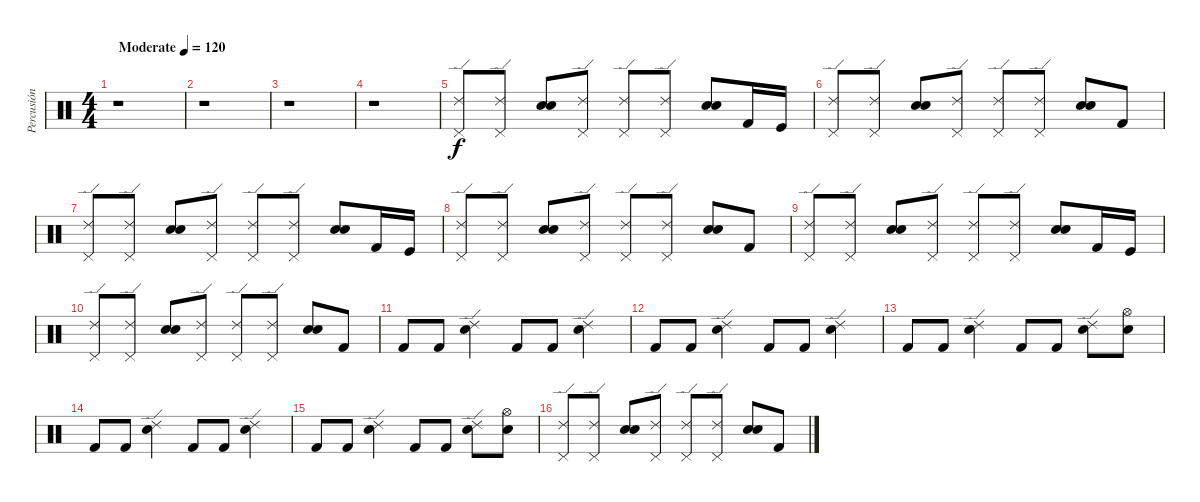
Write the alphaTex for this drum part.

\track ("Percusión" "Percusión") {instrument percussion}
\staff {score}
\articulation defaults
\ts (4 4)
\tempo (120 "Moderate")
\clef neutral
\ks c
r.1{dy f} |
r.1 |
r.1 |
r.1 |
("Pedal Hi-Hat (hit)" "Ride (edge) 2").8 ("Pedal Hi-Hat (hit)" "Ride (edge) 2").8 ("Electric Snare (hit)" "Snare (hit) 2").8 ("Pedal Hi-Hat (hit)" "Ride (edge) 2").8 ("Pedal Hi-Hat (hit)" "Ride (edge) 2").8 ("Pedal Hi-Hat (hit)" "Ride (edge) 2").8 ("Snare (hit) 2" "Electric Snare (hit)").8 "Kick (hit) 2".16 "Kick (hit)".16 |
("Pedal Hi-Hat (hit)" "Ride (edge) 2").8 ("Pedal Hi-Hat (hit)" "Ride (edge) 2").8 ("Electric Snare (hit)" "Snare (hit) 2").8 ("Pedal Hi-Hat (hit)" "Ride (edge) 2").8 ("Pedal Hi-Hat (hit)" "Ride (edge) 2").8 ("Pedal Hi-Hat (hit)" "Ride (edge) 2").8 ("Snare (hit) 2" "Electric Snare (hit)").8 "Kick (hit) 2".8 |
("Pedal Hi-Hat (hit)" "Ride (edge) 2").8 ("Pedal Hi-Hat (hit)" "Ride (edge) 2").8 ("Electric Snare (hit)" "Snare (hit) 2").8 ("Pedal Hi-Hat (hit)" "Ride (edge) 2").8 ("Pedal Hi-Hat (hit)" "Ride (edge) 2").8 ("Pedal Hi-Hat (hit)" "Ride (edge) 2").8 ("Snare (hit) 2" "Electric Snare (hit)").8 "Kick (hit) 2".16 "Kick (hit)".16 |
("Pedal Hi-Hat (hit)" "Ride (edge) 2").8 ("Pedal Hi-Hat (hit)" "Ride (edge) 2").8 ("Electric Snare (hit)" "Snare (hit) 2").8 ("Pedal Hi-Hat (hit)" "Ride (edge) 2").8 ("Pedal Hi-Hat (hit)" "Ride (edge) 2").8 ("Pedal Hi-Hat (hit)" "Ride (edge) 2").8 ("Snare (hit) 2" "Electric Snare (hit)").8 "Kick (hit) 2".8 |
("Pedal Hi-Hat (hit)" "Ride (edge) 2").8 ("Pedal Hi-Hat (hit)" "Ride (edge) 2").8 ("Electric Snare (hit)" "Snare (hit) 2").8 ("Pedal Hi-Hat (hit)" "Ride (edge) 2").8 ("Pedal Hi-Hat (hit)" "Ride (edge) 2").8 ("Pedal Hi-Hat (hit)" "Ride (edge) 2").8 ("Snare (hit) 2" "Electric Snare (hit)").8 "Kick (hit) 2".16 "Kick (hit)".16 |
("Pedal Hi-Hat (hit)" "Ride (edge) 2").8 ("Pedal Hi-Hat (hit)" "Ride (edge) 2").8 ("Electric Snare (hit)" "Snare (hit) 2").8 ("Pedal Hi-Hat (hit)" "Ride (edge) 2").8 ("Pedal Hi-Hat (hit)" "Ride (edge) 2").8 ("Pedal Hi-Hat (hit)" "Ride (edge) 2").8 ("Snare (hit) 2" "Electric Snare (hit)").8 "Kick (hit) 2".8 |
"Kick (hit) 2".8 "Kick (hit) 2".8 ("Ride (edge) 2" "Electric Snare (hit)").4 "Kick (hit) 2".8 "Kick (hit) 2".8 ("Ride (edge) 2" "Electric Snare (hit)").4 |
"Kick (hit) 2".8 "Kick (hit) 2".8 ("Ride (edge) 2" "Electric Snare (hit)").4 "Kick (hit) 2".8 "Kick (hit) 2".8 ("Ride (edge) 2" "Electric Snare (hit)").4 |
"Kick (hit) 2".8 "Kick (hit) 2".8 ("Ride (edge) 2" "Electric Snare (hit)").4 "Kick (hit) 2".8 "Kick (hit) 2".8 ("Ride (edge) 2" "Electric Snare (hit)").8 ("Hi-Hat (open)" "Electric Snare (hit)").8 |
"Kick (hit) 2".8 "Kick (hit) 2".8 ("Ride (edge) 2" "Electric Snare (hit)").4 "Kick (hit) 2".8 "Kick (hit) 2".8 ("Ride (edge) 2" "Electric Snare (hit)").4 |
"Kick (hit) 2".8 "Kick (hit) 2".8 ("Ride (edge) 2" "Electric Snare (hit)").4 "Kick (hit) 2".8 "Kick (hit) 2".8 ("Ride (edge) 2" "Electric Snare (hit)").8 ("Hi-Hat (open)" "Electric Snare (hit)").8 |
("Pedal Hi-Hat (hit)" "Ride (edge) 2").8 ("Pedal Hi-Hat (hit)" "Ride (edge) 2").8 ("Electric Snare (hit)" "Snare (hit) 2").8 ("Pedal Hi-Hat (hit)" "Ride (edge) 2").8 ("Pedal Hi-Hat (hit)" "Ride (edge) 2").8 ("Pedal Hi-Hat (hit)" "Ride (edge) 2").8 ("Snare (hit) 2" "Electric Snare (hit)").8 "Kick (hit) 2".8
